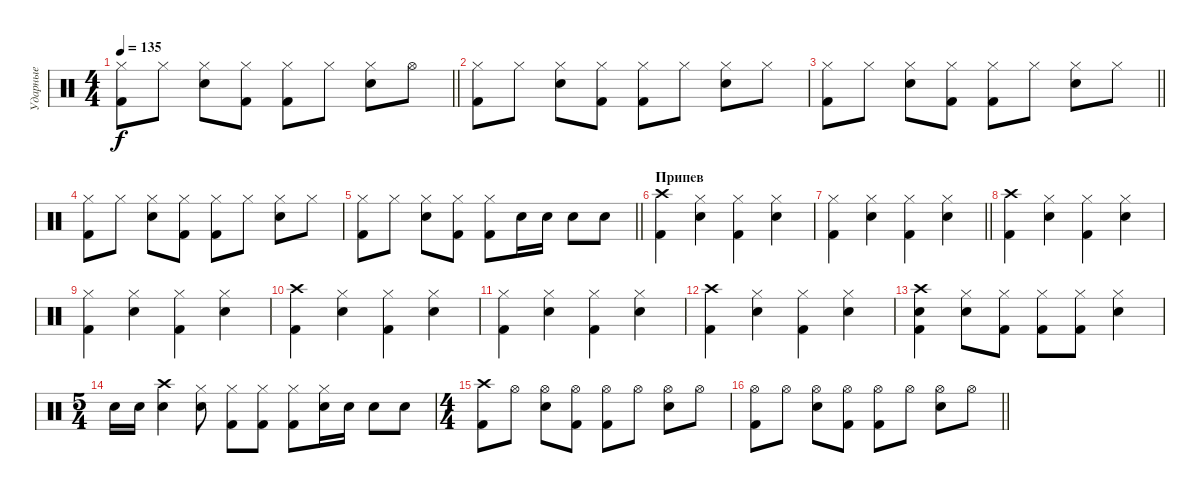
\track ("Ударные" "Ударные") {instrument percussion}
\staff {score}
\articulation defaults
\ts (4 4)
\tempo 135
\clef neutral
\barLineRight lightlight
\ks c
("Hi-Hat (closed)" "Kick (hit) 2").8{dy f} "Hi-Hat (closed)".8 ("Hi-Hat (closed)" "Snare (hit) 2").8 ("Hi-Hat (closed)" "Kick (hit) 2").8 ("Hi-Hat (closed)" "Kick (hit) 2").8 "Hi-Hat (closed)".8 ("Hi-Hat (closed)" "Snare (hit) 2").8 "Hi-Hat (open)".8 |
("Hi-Hat (closed)" "Kick (hit) 2").8 "Hi-Hat (closed)".8 ("Hi-Hat (closed)" "Snare (hit) 2").8 ("Hi-Hat (closed)" "Kick (hit) 2").8 ("Hi-Hat (closed)" "Kick (hit) 2").8 "Hi-Hat (closed)".8 ("Hi-Hat (closed)" "Snare (hit) 2").8 "Hi-Hat (closed)".8 |
\barLineRight lightlight
("Hi-Hat (closed)" "Kick (hit) 2").8 "Hi-Hat (closed)".8 ("Hi-Hat (closed)" "Snare (hit) 2").8 ("Hi-Hat (closed)" "Kick (hit) 2").8 ("Hi-Hat (closed)" "Kick (hit) 2").8 "Hi-Hat (closed)".8 ("Hi-Hat (closed)" "Snare (hit) 2").8 "Hi-Hat (closed)".8 |
("Hi-Hat (closed)" "Kick (hit) 2").8 "Hi-Hat (closed)".8 ("Hi-Hat (closed)" "Snare (hit) 2").8 ("Hi-Hat (closed)" "Kick (hit) 2").8 ("Hi-Hat (closed)" "Kick (hit) 2").8 "Hi-Hat (closed)".8 ("Hi-Hat (closed)" "Snare (hit) 2").8 "Hi-Hat (closed)".8 |
\barLineRight lightlight
("Hi-Hat (closed)" "Kick (hit) 2").8 "Hi-Hat (closed)".8 ("Hi-Hat (closed)" "Snare (hit) 2").8 ("Hi-Hat (closed)" "Kick (hit) 2").8 ("Hi-Hat (closed)" "Kick (hit) 2").8 "Snare (hit) 2".16 "Snare (hit) 2".16 "Snare (hit) 2".8 "Snare (hit) 2".8 |
\section ("" "Припев")
("Crash high (hit)" "Kick (hit) 2").4 ("Hi-Hat (closed)" "Snare (hit) 2").4 ("Hi-Hat (closed)" "Kick (hit) 2").4 ("Hi-Hat (closed)" "Snare (hit) 2").4 |
\barLineRight lightlight
("Hi-Hat (closed)" "Kick (hit) 2").4 ("Hi-Hat (closed)" "Snare (hit) 2").4 ("Hi-Hat (closed)" "Kick (hit) 2").4 ("Hi-Hat (closed)" "Snare (hit) 2").4 |
("Crash high (hit)" "Kick (hit) 2").4 ("Hi-Hat (closed)" "Snare (hit) 2").4 ("Hi-Hat (closed)" "Kick (hit) 2").4 ("Hi-Hat (closed)" "Snare (hit) 2").4 |
("Hi-Hat (closed)" "Kick (hit) 2").4 ("Hi-Hat (closed)" "Snare (hit) 2").4 ("Hi-Hat (closed)" "Kick (hit) 2").4 ("Hi-Hat (closed)" "Snare (hit) 2").4 |
("Crash high (hit)" "Kick (hit) 2").4 ("Hi-Hat (closed)" "Snare (hit) 2").4 ("Hi-Hat (closed)" "Kick (hit) 2").4 ("Hi-Hat (closed)" "Snare (hit) 2").4 |
("Hi-Hat (closed)" "Kick (hit) 2").4 ("Hi-Hat (closed)" "Snare (hit) 2").4 ("Hi-Hat (closed)" "Kick (hit) 2").4 ("Hi-Hat (closed)" "Snare (hit) 2").4 |
("Crash high (hit)" "Kick (hit) 2").4 ("Hi-Hat (closed)" "Snare (hit) 2").4 ("Hi-Hat (closed)" "Kick (hit) 2").4 ("Hi-Hat (closed)" "Snare (hit) 2").4 |
("Crash high (hit)" "Snare (hit) 2" "Kick (hit) 2").4 ("Hi-Hat (closed)" "Snare (hit) 2").8 ("Hi-Hat (closed)" "Kick (hit) 2").8 ("Hi-Hat (closed)" "Kick (hit) 2").8 ("Hi-Hat (closed)" "Kick (hit) 2").8 ("Hi-Hat (closed)" "Snare (hit) 2").4 |
\ts (5 4)
"Snare (hit) 2".16 "Snare (hit) 2".16 ("Crash high (hit)" "Snare (hit) 2").4 ("Hi-Hat (closed)" "Snare (hit) 2").8 ("Hi-Hat (closed)" "Kick (hit) 2").8 ("Hi-Hat (closed)" "Kick (hit) 2").8 ("Hi-Hat (closed)" "Kick (hit) 2").8 ("Hi-Hat (closed)" "Snare (hit) 2").16 "Snare (hit) 2".16 "Snare (hit) 2".8 "Snare (hit) 2".8 |
\ts (4 4)
("Crash high (hit)" "Kick (hit) 2").8 "Hi-Hat (open)".8 ("Hi-Hat (open)" "Snare (hit) 2").8 ("Hi-Hat (open)" "Kick (hit) 2").8 ("Hi-Hat (open)" "Kick (hit) 2").8 "Hi-Hat (open)".8 ("Hi-Hat (open)" "Snare (hit) 2").8 "Hi-Hat (open)".8 |
\barLineRight lightlight
("Hi-Hat (open)" "Kick (hit) 2").8 "Hi-Hat (open)".8 ("Hi-Hat (open)" "Snare (hit) 2").8 ("Hi-Hat (open)" "Kick (hit) 2").8 ("Hi-Hat (open)" "Kick (hit) 2").8 "Hi-Hat (open)".8 ("Hi-Hat (open)" "Snare (hit) 2").8 "Hi-Hat (open)".8
